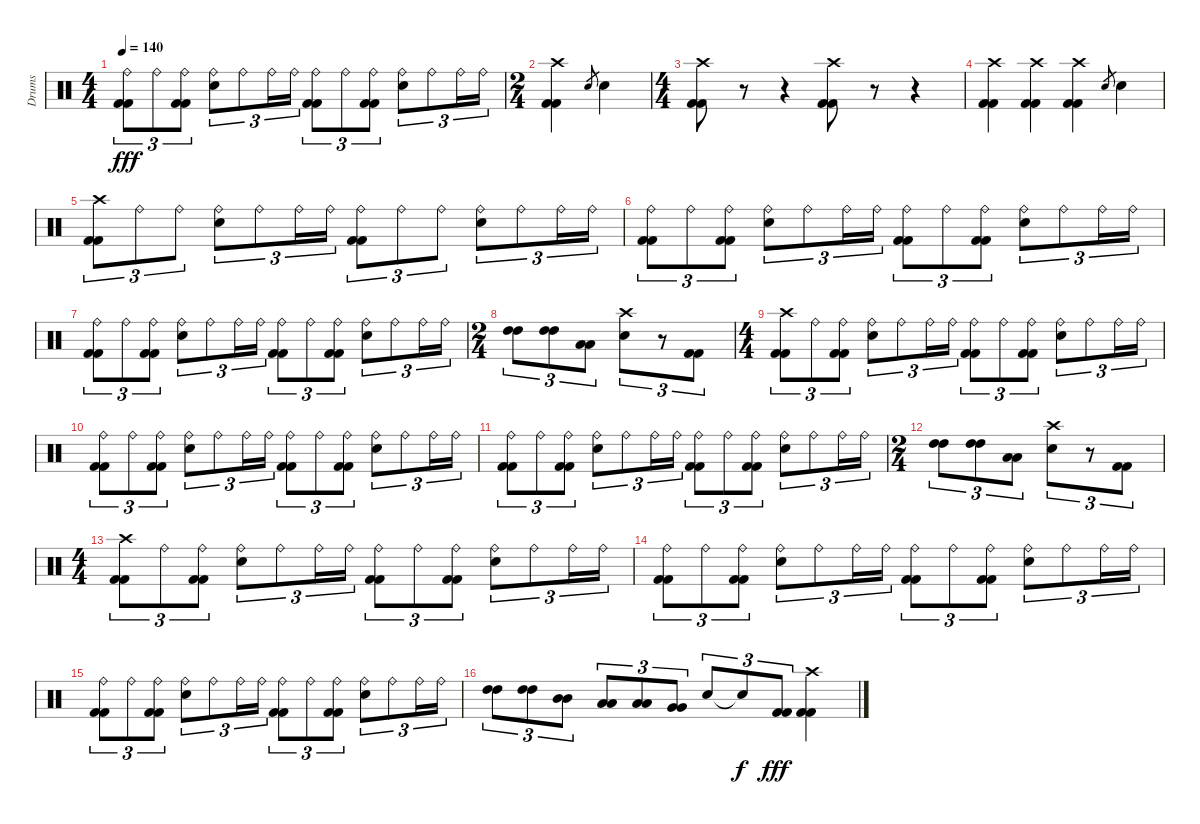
\track ("Drums" "Drums") {instrument percussion}
\staff {score}
\articulation defaults
\ts (4 4)
\tempo 140
\clef neutral
\ks c
("Ride (bell)" "Kick (hit) 2" "Kick (hit) 2").8{tu (3 2) dy fff} "Ride (bell)".8{tu (3 2)} ("Ride (bell)" "Kick (hit) 2" "Kick (hit) 2").8{tu (3 2)} ("Ride (bell)" "Snare (hit) 2").8{tu (3 2)} "Ride (bell)".8{tu (3 2)} "Ride (bell)".16{tu (3 2)} "Ride (bell)".16{tu (3 2)} ("Ride (bell)" "Kick (hit) 2" "Kick (hit) 2").8{tu (3 2)} "Ride (bell)".8{tu (3 2)} ("Ride (bell)" "Kick (hit) 2" "Kick (hit) 2").8{tu (3 2)} ("Ride (bell)" "Snare (hit) 2").8{tu (3 2)} "Ride (bell)".8{tu (3 2)} "Ride (bell)".16{tu (3 2)} "Ride (bell)".16{tu (3 2)} |
\ts (2 4)
("Crash high (hit)" "Kick (hit) 2" "Kick (hit) 2").4 "Snare (hit) 2".8{gr} "Snare (hit) 2".4 |
\ts (4 4)
("Crash high (hit)" "Kick (hit) 2" "Kick (hit) 2").8 r.8 r.4 ("Crash high (hit)" "Kick (hit) 2" "Kick (hit) 2").8 r.8 r.4 |
("Crash high (hit)" "Kick (hit) 2" "Kick (hit) 2").4 ("Crash high (hit)" "Kick (hit) 2" "Kick (hit) 2").4 ("Crash high (hit)" "Kick (hit) 2" "Kick (hit) 2").4 "Snare (hit) 2".8{gr} "Snare (hit) 2".4 |
("Crash high (hit)" "Kick (hit) 2" "Kick (hit) 2").8{tu (3 2)} "Ride (bell)".8{tu (3 2)} "Ride (bell)".8{tu (3 2)} ("Ride (bell)" "Snare (hit) 2").8{tu (3 2)} "Ride (bell)".8{tu (3 2)} "Ride (bell)".16{tu (3 2)} "Ride (bell)".16{tu (3 2)} ("Ride (bell)" "Kick (hit) 2" "Kick (hit) 2").8{tu (3 2)} "Ride (bell)".8{tu (3 2)} "Ride (bell)".8{tu (3 2)} ("Ride (bell)" "Snare (hit) 2").8{tu (3 2)} "Ride (bell)".8{tu (3 2)} "Ride (bell)".16{tu (3 2)} "Ride (bell)".16{tu (3 2)} |
("Ride (bell)" "Kick (hit) 2" "Kick (hit) 2").8{tu (3 2)} "Ride (bell)".8{tu (3 2)} ("Ride (bell)" "Kick (hit) 2" "Kick (hit) 2").8{tu (3 2)} ("Ride (bell)" "Snare (hit) 2").8{tu (3 2)} "Ride (bell)".8{tu (3 2)} "Ride (bell)".16{tu (3 2)} "Ride (bell)".16{tu (3 2)} ("Ride (bell)" "Kick (hit) 2" "Kick (hit) 2").8{tu (3 2)} "Ride (bell)".8{tu (3 2)} ("Ride (bell)" "Kick (hit) 2" "Kick (hit) 2").8{tu (3 2)} ("Ride (bell)" "Snare (hit) 2").8{tu (3 2)} "Ride (bell)".8{tu (3 2)} "Ride (bell)".16{tu (3 2)} "Ride (bell)".16{tu (3 2)} |
("Ride (bell)" "Kick (hit) 2" "Kick (hit) 2").8{tu (3 2)} "Ride (bell)".8{tu (3 2)} ("Ride (bell)" "Kick (hit) 2" "Kick (hit) 2").8{tu (3 2)} ("Ride (bell)" "Snare (hit) 2").8{tu (3 2)} "Ride (bell)".8{tu (3 2)} "Ride (bell)".16{tu (3 2)} "Ride (bell)".16{tu (3 2)} ("Ride (bell)" "Kick (hit) 2" "Kick (hit) 2").8{tu (3 2)} "Ride (bell)".8{tu (3 2)} ("Ride (bell)" "Kick (hit) 2" "Kick (hit) 2").8{tu (3 2)} ("Ride (bell)" "Snare (hit) 2").8{tu (3 2)} "Ride (bell)".8{tu (3 2)} "Ride (bell)".16{tu (3 2)} "Ride (bell)".16{tu (3 2)} |
\ts (2 4)
("High Tom (hit)" "High Tom (hit)").8{tu (3 2)} ("High Tom (hit)" "High Tom (hit)").8{tu (3 2)} ("Low Tom (hit)" "Low Tom (hit)").8{tu (3 2)} ("Crash high (hit)" "Snare (hit) 2").8{tu (3 2)} r.8{tu (3 2)} ("Kick (hit) 2" "Kick (hit) 2").8{tu (3 2)} |
\ts (4 4)
("Crash high (hit)" "Kick (hit) 2" "Kick (hit) 2").8{tu (3 2)} "Ride (bell)".8{tu (3 2)} ("Ride (bell)" "Kick (hit) 2" "Kick (hit) 2").8{tu (3 2)} ("Ride (bell)" "Snare (hit) 2").8{tu (3 2)} "Ride (bell)".8{tu (3 2)} "Ride (bell)".16{tu (3 2)} "Ride (bell)".16{tu (3 2)} ("Ride (bell)" "Kick (hit) 2" "Kick (hit) 2").8{tu (3 2)} "Ride (bell)".8{tu (3 2)} ("Ride (bell)" "Kick (hit) 2" "Kick (hit) 2").8{tu (3 2)} ("Ride (bell)" "Snare (hit) 2").8{tu (3 2)} "Ride (bell)".8{tu (3 2)} "Ride (bell)".16{tu (3 2)} "Ride (bell)".16{tu (3 2)} |
("Ride (bell)" "Kick (hit) 2" "Kick (hit) 2").8{tu (3 2)} "Ride (bell)".8{tu (3 2)} ("Ride (bell)" "Kick (hit) 2" "Kick (hit) 2").8{tu (3 2)} ("Ride (bell)" "Snare (hit) 2").8{tu (3 2)} "Ride (bell)".8{tu (3 2)} "Ride (bell)".16{tu (3 2)} "Ride (bell)".16{tu (3 2)} ("Ride (bell)" "Kick (hit) 2" "Kick (hit) 2").8{tu (3 2)} "Ride (bell)".8{tu (3 2)} ("Ride (bell)" "Kick (hit) 2" "Kick (hit) 2").8{tu (3 2)} ("Ride (bell)" "Snare (hit) 2").8{tu (3 2)} "Ride (bell)".8{tu (3 2)} "Ride (bell)".16{tu (3 2)} "Ride (bell)".16{tu (3 2)} |
("Ride (bell)" "Kick (hit) 2" "Kick (hit) 2").8{tu (3 2)} "Ride (bell)".8{tu (3 2)} ("Ride (bell)" "Kick (hit) 2" "Kick (hit) 2").8{tu (3 2)} ("Ride (bell)" "Snare (hit) 2").8{tu (3 2)} "Ride (bell)".8{tu (3 2)} "Ride (bell)".16{tu (3 2)} "Ride (bell)".16{tu (3 2)} ("Ride (bell)" "Kick (hit) 2" "Kick (hit) 2").8{tu (3 2)} "Ride (bell)".8{tu (3 2)} ("Ride (bell)" "Kick (hit) 2" "Kick (hit) 2").8{tu (3 2)} ("Ride (bell)" "Snare (hit) 2").8{tu (3 2)} "Ride (bell)".8{tu (3 2)} "Ride (bell)".16{tu (3 2)} "Ride (bell)".16{tu (3 2)} |
\ts (2 4)
("High Tom (hit)" "High Tom (hit)").8{tu (3 2)} ("High Tom (hit)" "High Tom (hit)").8{tu (3 2)} ("Low Tom (hit)" "Low Tom (hit)").8{tu (3 2)} ("Crash high (hit)" "Snare (hit) 2").8{tu (3 2)} r.8{tu (3 2)} ("Kick (hit) 2" "Kick (hit) 2").8{tu (3 2)} |
\ts (4 4)
("Crash high (hit)" "Kick (hit) 2" "Kick (hit) 2").8{tu (3 2)} "Ride (bell)".8{tu (3 2)} ("Ride (bell)" "Kick (hit) 2" "Kick (hit) 2").8{tu (3 2)} ("Ride (bell)" "Snare (hit) 2").8{tu (3 2)} "Ride (bell)".8{tu (3 2)} "Ride (bell)".16{tu (3 2)} "Ride (bell)".16{tu (3 2)} ("Ride (bell)" "Kick (hit) 2" "Kick (hit) 2").8{tu (3 2)} "Ride (bell)".8{tu (3 2)} ("Ride (bell)" "Kick (hit) 2" "Kick (hit) 2").8{tu (3 2)} ("Ride (bell)" "Snare (hit) 2").8{tu (3 2)} "Ride (bell)".8{tu (3 2)} "Ride (bell)".16{tu (3 2)} "Ride (bell)".16{tu (3 2)} |
("Ride (bell)" "Kick (hit) 2" "Kick (hit) 2").8{tu (3 2)} "Ride (bell)".8{tu (3 2)} ("Ride (bell)" "Kick (hit) 2" "Kick (hit) 2").8{tu (3 2)} ("Ride (bell)" "Snare (hit) 2").8{tu (3 2)} "Ride (bell)".8{tu (3 2)} "Ride (bell)".16{tu (3 2)} "Ride (bell)".16{tu (3 2)} ("Ride (bell)" "Kick (hit) 2" "Kick (hit) 2").8{tu (3 2)} "Ride (bell)".8{tu (3 2)} ("Ride (bell)" "Kick (hit) 2" "Kick (hit) 2").8{tu (3 2)} ("Ride (bell)" "Snare (hit) 2").8{tu (3 2)} "Ride (bell)".8{tu (3 2)} "Ride (bell)".16{tu (3 2)} "Ride (bell)".16{tu (3 2)} |
("Ride (bell)" "Kick (hit) 2" "Kick (hit) 2").8{tu (3 2)} "Ride (bell)".8{tu (3 2)} ("Ride (bell)" "Kick (hit) 2" "Kick (hit) 2").8{tu (3 2)} ("Ride (bell)" "Snare (hit) 2").8{tu (3 2)} "Ride (bell)".8{tu (3 2)} "Ride (bell)".16{tu (3 2)} "Ride (bell)".16{tu (3 2)} ("Ride (bell)" "Kick (hit) 2" "Kick (hit) 2").8{tu (3 2)} "Ride (bell)".8{tu (3 2)} ("Ride (bell)" "Kick (hit) 2" "Kick (hit) 2").8{tu (3 2)} ("Ride (bell)" "Snare (hit) 2").8{tu (3 2)} "Ride (bell)".8{tu (3 2)} "Ride (bell)".16{tu (3 2)} "Ride (bell)".16{tu (3 2)} |
("High Tom (hit)" "High Tom (hit)").8{tu (3 2)} ("High Tom (hit)" "High Tom (hit)").8{tu (3 2)} ("Mid Tom (hit)" "Mid Tom (hit)").8{tu (3 2)} ("Low Tom (hit)" "Low Tom (hit)").8{tu (3 2)} ("Low Tom (hit)" "Low Tom (hit)").8{tu (3 2)} ("Very Low Tom (hit)" "Very Low Tom (hit)").8{tu (3 2)} "Snare (hit) 2".8{tu (3 2)} "Snare (hit)"{t}.8{tu (3 2) dy f} ("Kick (hit) 2" "Kick (hit) 2").8{tu (3 2) dy fff} ("Crash high (hit)" "Kick (hit) 2" "Kick (hit) 2").4
